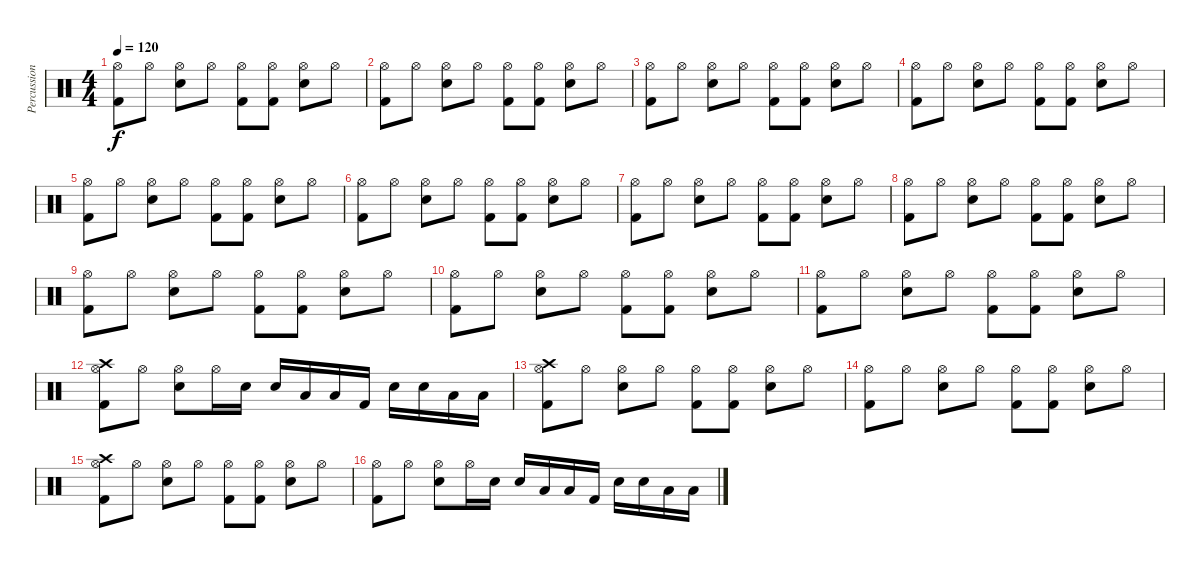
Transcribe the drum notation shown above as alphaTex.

\track ("Percussion" "Percussion") {instrument percussion}
\staff {score}
\articulation defaults
\ts (4 4)
\tempo 120
\clef neutral
\ks c
("Hi-Hat (open)" "Kick (hit) 2").8{dy f} "Hi-Hat (open)".8 ("Hi-Hat (open)" "Snare (hit) 2").8 "Hi-Hat (open)".8 ("Hi-Hat (open)" "Kick (hit) 2").8 ("Hi-Hat (open)" "Kick (hit) 2").8 ("Hi-Hat (open)" "Snare (hit) 2").8 "Hi-Hat (open)".8 |
("Hi-Hat (open)" "Kick (hit) 2").8 "Hi-Hat (open)".8 ("Hi-Hat (open)" "Snare (hit) 2").8 "Hi-Hat (open)".8 ("Hi-Hat (open)" "Kick (hit) 2").8 ("Hi-Hat (open)" "Kick (hit) 2").8 ("Hi-Hat (open)" "Snare (hit) 2").8 "Hi-Hat (open)".8 |
("Hi-Hat (open)" "Kick (hit) 2").8 "Hi-Hat (open)".8 ("Hi-Hat (open)" "Snare (hit) 2").8 "Hi-Hat (open)".8 ("Hi-Hat (open)" "Kick (hit) 2").8 ("Hi-Hat (open)" "Kick (hit) 2").8 ("Hi-Hat (open)" "Snare (hit) 2").8 "Hi-Hat (open)".8 |
("Hi-Hat (open)" "Kick (hit) 2").8 "Hi-Hat (open)".8 ("Hi-Hat (open)" "Snare (hit) 2").8 "Hi-Hat (open)".8 ("Hi-Hat (open)" "Kick (hit) 2").8 ("Hi-Hat (open)" "Kick (hit) 2").8 ("Hi-Hat (open)" "Snare (hit) 2").8 "Hi-Hat (open)".8 |
("Hi-Hat (open)" "Kick (hit) 2").8 "Hi-Hat (open)".8 ("Hi-Hat (open)" "Snare (hit) 2").8 "Hi-Hat (open)".8 ("Hi-Hat (open)" "Kick (hit) 2").8 ("Hi-Hat (open)" "Kick (hit) 2").8 ("Hi-Hat (open)" "Snare (hit) 2").8 "Hi-Hat (open)".8 |
("Hi-Hat (open)" "Kick (hit) 2").8 "Hi-Hat (open)".8 ("Hi-Hat (open)" "Snare (hit) 2").8 "Hi-Hat (open)".8 ("Hi-Hat (open)" "Kick (hit) 2").8 ("Hi-Hat (open)" "Kick (hit) 2").8 ("Hi-Hat (open)" "Snare (hit) 2").8 "Hi-Hat (open)".8 |
("Hi-Hat (open)" "Kick (hit) 2").8 "Hi-Hat (open)".8 ("Hi-Hat (open)" "Snare (hit) 2").8 "Hi-Hat (open)".8 ("Hi-Hat (open)" "Kick (hit) 2").8 ("Hi-Hat (open)" "Kick (hit) 2").8 ("Hi-Hat (open)" "Snare (hit) 2").8 "Hi-Hat (open)".8 |
("Hi-Hat (open)" "Kick (hit) 2").8 "Hi-Hat (open)".8 ("Hi-Hat (open)" "Snare (hit) 2").8 "Hi-Hat (open)".8 ("Hi-Hat (open)" "Kick (hit) 2").8 ("Hi-Hat (open)" "Kick (hit) 2").8 ("Hi-Hat (open)" "Snare (hit) 2").8 "Hi-Hat (open)".8 |
("Hi-Hat (open)" "Kick (hit) 2").8 "Hi-Hat (open)".8 ("Hi-Hat (open)" "Snare (hit) 2").8 "Hi-Hat (open)".8 ("Hi-Hat (open)" "Kick (hit) 2").8 ("Hi-Hat (open)" "Kick (hit) 2").8 ("Hi-Hat (open)" "Snare (hit) 2").8 "Hi-Hat (open)".8 |
("Hi-Hat (open)" "Kick (hit) 2").8 "Hi-Hat (open)".8 ("Hi-Hat (open)" "Snare (hit) 2").8 "Hi-Hat (open)".8 ("Hi-Hat (open)" "Kick (hit) 2").8 ("Hi-Hat (open)" "Kick (hit) 2").8 ("Hi-Hat (open)" "Snare (hit) 2").8 "Hi-Hat (open)".8 |
("Hi-Hat (open)" "Kick (hit) 2").8 "Hi-Hat (open)".8 ("Hi-Hat (open)" "Snare (hit) 2").8 "Hi-Hat (open)".8 ("Hi-Hat (open)" "Kick (hit) 2").8 ("Hi-Hat (open)" "Kick (hit) 2").8 ("Hi-Hat (open)" "Snare (hit) 2").8 "Hi-Hat (open)".8 |
("Hi-Hat (open)" "Crash high (hit)" "Kick (hit) 2").8 "Hi-Hat (open)".8 ("Hi-Hat (open)" "Snare (hit) 2").8 "Hi-Hat (open)".16 "Snare (hit) 2".16 "Snare (hit) 2".16 "Low Floor Tom (hit)".16 "Low Floor Tom (hit)".16 "Kick (hit) 2".16 "Snare (hit) 2".16 "Snare (hit) 2".16 "Low Floor Tom (hit)".16 "Low Floor Tom (hit)".16 |
("Hi-Hat (open)" "Kick (hit) 2" "Crash high (hit)").8 "Hi-Hat (open)".8 ("Hi-Hat (open)" "Snare (hit) 2").8 "Hi-Hat (open)".8 ("Hi-Hat (open)" "Kick (hit) 2").8 ("Hi-Hat (open)" "Kick (hit) 2").8 ("Hi-Hat (open)" "Snare (hit) 2").8 "Hi-Hat (open)".8 |
("Hi-Hat (open)" "Kick (hit) 2").8 "Hi-Hat (open)".8 ("Hi-Hat (open)" "Snare (hit) 2").8 "Hi-Hat (open)".8 ("Hi-Hat (open)" "Kick (hit) 2").8 ("Hi-Hat (open)" "Kick (hit) 2").8 ("Hi-Hat (open)" "Snare (hit) 2").8 "Hi-Hat (open)".8 |
("Hi-Hat (open)" "Kick (hit) 2" "Crash high (hit)").8 "Hi-Hat (open)".8 ("Hi-Hat (open)" "Snare (hit) 2").8 "Hi-Hat (open)".8 ("Hi-Hat (open)" "Kick (hit) 2").8 ("Hi-Hat (open)" "Kick (hit) 2").8 ("Hi-Hat (open)" "Snare (hit) 2").8 "Hi-Hat (open)".8 |
("Hi-Hat (open)" "Kick (hit) 2").8 "Hi-Hat (open)".8 ("Hi-Hat (open)" "Snare (hit) 2").8 "Hi-Hat (open)".16 "Snare (hit) 2".16 "Snare (hit) 2".16 "Low Floor Tom (hit)".16 "Low Floor Tom (hit)".16 "Kick (hit) 2".16 "Snare (hit) 2".16 "Snare (hit) 2".16 "Low Floor Tom (hit)".16 "Low Floor Tom (hit)".16
